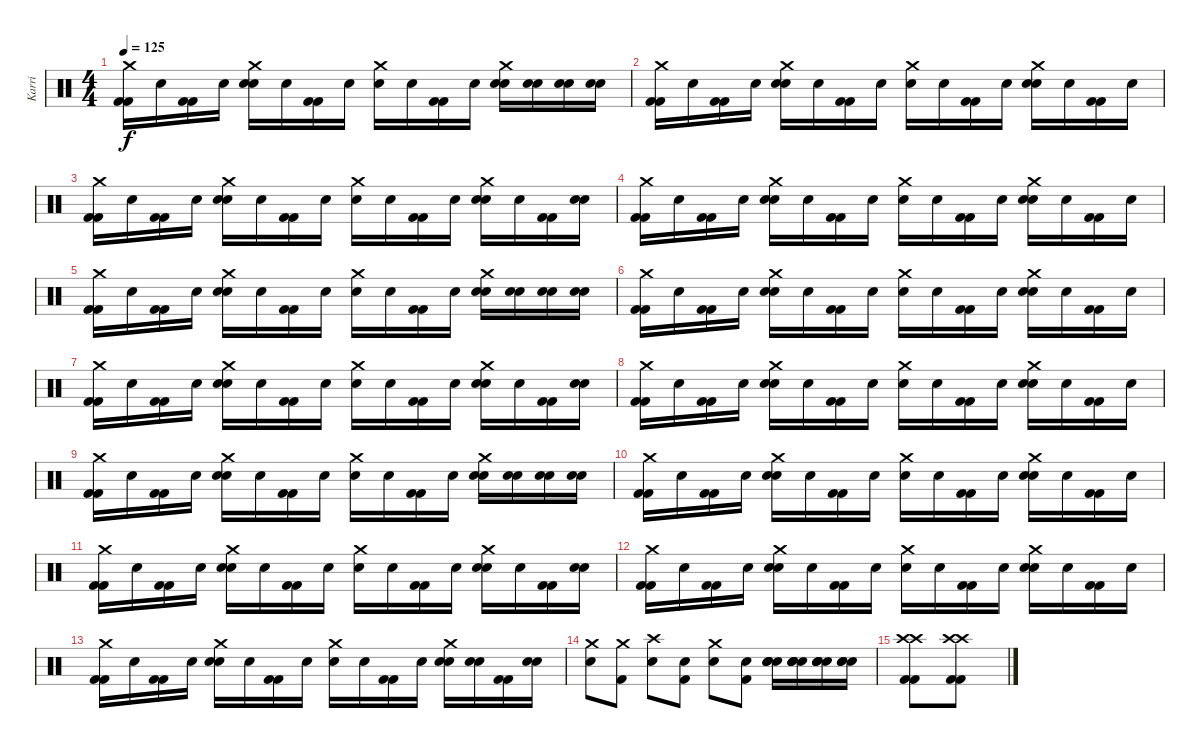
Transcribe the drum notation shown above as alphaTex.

\track ("Karri" "Karri") {instrument percussion}
\staff {score}
\articulation defaults
\ts (4 4)
\tempo 125
\clef neutral
\ks c
("Crash medium (hit)" "Kick (hit) 2" "Kick (hit) 2").16{dy f} "Snare (hit)"{x}.16 ("Kick (hit) 2" "Kick (hit) 2").16 "Snare (hit)"{x}.16 ("Crash medium (hit)" "Snare (hit) 2" "Snare (hit) 2").16 "Snare (hit)"{x}.16 ("Kick (hit) 2" "Kick (hit) 2").16 "Snare (hit)"{x}.16 ("Crash medium (hit)" "Snare (hit)"{x}).16 "Snare (hit)"{x}.16 ("Kick (hit) 2" "Kick (hit) 2").16 "Snare (hit)"{x}.16 ("Crash medium (hit)" "Snare (hit) 2" "Snare (hit) 2").16 ("Snare (hit) 2"{x} "Snare (hit) 2"{x}).16 ("Snare (hit) 2" "Snare (hit) 2").16 ("Snare (hit) 2" "Snare (hit) 2").16 |
("Crash medium (hit)" "Kick (hit) 2" "Kick (hit) 2").16 "Snare (hit)"{x}.16 ("Kick (hit) 2" "Kick (hit) 2").16 "Snare (hit)"{x}.16 ("Crash medium (hit)" "Snare (hit) 2" "Snare (hit) 2").16 "Snare (hit)"{x}.16 ("Kick (hit) 2" "Kick (hit) 2").16 "Snare (hit)"{x}.16 ("Crash medium (hit)" "Snare (hit)"{x}).16 "Snare (hit)"{x}.16 ("Kick (hit) 2" "Kick (hit) 2").16 "Snare (hit)"{x}.16 ("Crash medium (hit)" "Snare (hit) 2" "Snare (hit) 2").16 "Snare (hit)"{x}.16 ("Kick (hit) 2" "Kick (hit) 2").16 "Snare (hit)"{x}.16 |
("Crash medium (hit)" "Kick (hit) 2" "Kick (hit) 2").16 "Snare (hit)"{x}.16 ("Kick (hit) 2" "Kick (hit) 2").16 "Snare (hit)"{x}.16 ("Crash medium (hit)" "Snare (hit) 2" "Snare (hit) 2").16 "Snare (hit)"{x}.16 ("Kick (hit) 2" "Kick (hit) 2").16 "Snare (hit)"{x}.16 ("Crash medium (hit)" "Snare (hit)"{x}).16 "Snare (hit)"{x}.16 ("Kick (hit) 2" "Kick (hit) 2").16 "Snare (hit)"{x}.16 ("Crash medium (hit)" "Snare (hit) 2" "Snare (hit) 2").16 "Snare (hit)"{x}.16 ("Kick (hit) 2" "Kick (hit) 2").16 ("Snare (hit) 2"{x} "Snare (hit) 2"{x}).16 |
("Crash medium (hit)" "Kick (hit) 2" "Kick (hit) 2").16 "Snare (hit)"{x}.16 ("Kick (hit) 2" "Kick (hit) 2").16 "Snare (hit)"{x}.16 ("Crash medium (hit)" "Snare (hit) 2" "Snare (hit) 2").16 "Snare (hit)"{x}.16 ("Kick (hit) 2" "Kick (hit) 2").16 "Snare (hit)"{x}.16 ("Crash medium (hit)" "Snare (hit)"{x}).16 "Snare (hit)"{x}.16 ("Kick (hit) 2" "Kick (hit) 2").16 "Snare (hit)"{x}.16 ("Crash medium (hit)" "Snare (hit) 2" "Snare (hit) 2").16 "Snare (hit)"{x}.16 ("Kick (hit) 2" "Kick (hit) 2").16 "Snare (hit)"{x}.16 |
("Crash medium (hit)" "Kick (hit) 2" "Kick (hit) 2").16 "Snare (hit)"{x}.16 ("Kick (hit) 2" "Kick (hit) 2").16 "Snare (hit)"{x}.16 ("Crash medium (hit)" "Snare (hit) 2" "Snare (hit) 2").16 "Snare (hit)"{x}.16 ("Kick (hit) 2" "Kick (hit) 2").16 "Snare (hit)"{x}.16 ("Crash medium (hit)" "Snare (hit)"{x}).16 "Snare (hit)"{x}.16 ("Kick (hit) 2" "Kick (hit) 2").16 "Snare (hit)"{x}.16 ("Crash medium (hit)" "Snare (hit) 2" "Snare (hit) 2").16 ("Snare (hit) 2"{x} "Snare (hit) 2"{x}).16 ("Snare (hit) 2" "Snare (hit) 2").16 ("Snare (hit) 2" "Snare (hit) 2").16 |
("Crash medium (hit)" "Kick (hit) 2" "Kick (hit) 2").16 "Snare (hit)"{x}.16 ("Kick (hit) 2" "Kick (hit) 2").16 "Snare (hit)"{x}.16 ("Crash medium (hit)" "Snare (hit) 2" "Snare (hit) 2").16 "Snare (hit)"{x}.16 ("Kick (hit) 2" "Kick (hit) 2").16 "Snare (hit)"{x}.16 ("Crash medium (hit)" "Snare (hit)"{x}).16 "Snare (hit)"{x}.16 ("Kick (hit) 2" "Kick (hit) 2").16 "Snare (hit)"{x}.16 ("Crash medium (hit)" "Snare (hit) 2" "Snare (hit) 2").16 "Snare (hit)"{x}.16 ("Kick (hit) 2" "Kick (hit) 2").16 "Snare (hit)"{x}.16 |
("Crash medium (hit)" "Kick (hit) 2" "Kick (hit) 2").16 "Snare (hit)"{x}.16 ("Kick (hit) 2" "Kick (hit) 2").16 "Snare (hit)"{x}.16 ("Crash medium (hit)" "Snare (hit) 2" "Snare (hit) 2").16 "Snare (hit)"{x}.16 ("Kick (hit) 2" "Kick (hit) 2").16 "Snare (hit)"{x}.16 ("Crash medium (hit)" "Snare (hit)"{x}).16 "Snare (hit)"{x}.16 ("Kick (hit) 2" "Kick (hit) 2").16 "Snare (hit)"{x}.16 ("Crash medium (hit)" "Snare (hit) 2" "Snare (hit) 2").16 "Snare (hit)"{x}.16 ("Kick (hit) 2" "Kick (hit) 2").16 ("Snare (hit) 2"{x} "Snare (hit) 2"{x}).16 |
("Crash medium (hit)" "Kick (hit) 2" "Kick (hit) 2").16 "Snare (hit)"{x}.16 ("Kick (hit) 2" "Kick (hit) 2").16 "Snare (hit)"{x}.16 ("Crash medium (hit)" "Snare (hit) 2" "Snare (hit) 2").16 "Snare (hit)"{x}.16 ("Kick (hit) 2" "Kick (hit) 2").16 "Snare (hit)"{x}.16 ("Crash medium (hit)" "Snare (hit)"{x}).16 "Snare (hit)"{x}.16 ("Kick (hit) 2" "Kick (hit) 2").16 "Snare (hit)"{x}.16 ("Crash medium (hit)" "Snare (hit) 2" "Snare (hit) 2").16 "Snare (hit)"{x}.16 ("Kick (hit) 2" "Kick (hit) 2").16 "Snare (hit)"{x}.16 |
("Crash medium (hit)" "Kick (hit) 2" "Kick (hit) 2").16 "Snare (hit)"{x}.16 ("Kick (hit) 2" "Kick (hit) 2").16 "Snare (hit)"{x}.16 ("Crash medium (hit)" "Snare (hit) 2" "Snare (hit) 2").16 "Snare (hit)"{x}.16 ("Kick (hit) 2" "Kick (hit) 2").16 "Snare (hit)"{x}.16 ("Crash medium (hit)" "Snare (hit)"{x}).16 "Snare (hit)"{x}.16 ("Kick (hit) 2" "Kick (hit) 2").16 "Snare (hit)"{x}.16 ("Crash medium (hit)" "Snare (hit) 2" "Snare (hit) 2").16 ("Snare (hit) 2"{x} "Snare (hit) 2"{x}).16 ("Snare (hit) 2" "Snare (hit) 2").16 ("Snare (hit) 2" "Snare (hit) 2").16 |
("Crash medium (hit)" "Kick (hit) 2" "Kick (hit) 2").16 "Snare (hit)"{x}.16 ("Kick (hit) 2" "Kick (hit) 2").16 "Snare (hit)"{x}.16 ("Crash medium (hit)" "Snare (hit) 2" "Snare (hit) 2").16 "Snare (hit)"{x}.16 ("Kick (hit) 2" "Kick (hit) 2").16 "Snare (hit)"{x}.16 ("Crash medium (hit)" "Snare (hit)"{x}).16 "Snare (hit)"{x}.16 ("Kick (hit) 2" "Kick (hit) 2").16 "Snare (hit)"{x}.16 ("Crash medium (hit)" "Snare (hit) 2" "Snare (hit) 2").16 "Snare (hit)"{x}.16 ("Kick (hit) 2" "Kick (hit) 2").16 "Snare (hit)"{x}.16 |
("Crash medium (hit)" "Kick (hit) 2" "Kick (hit) 2").16 "Snare (hit)"{x}.16 ("Kick (hit) 2" "Kick (hit) 2").16 "Snare (hit)"{x}.16 ("Crash medium (hit)" "Snare (hit) 2" "Snare (hit) 2").16 "Snare (hit)"{x}.16 ("Kick (hit) 2" "Kick (hit) 2").16 "Snare (hit)"{x}.16 ("Crash medium (hit)" "Snare (hit)"{x}).16 "Snare (hit)"{x}.16 ("Kick (hit) 2" "Kick (hit) 2").16 "Snare (hit)"{x}.16 ("Crash medium (hit)" "Snare (hit) 2" "Snare (hit) 2").16 "Snare (hit)"{x}.16 ("Kick (hit) 2" "Kick (hit) 2").16 ("Snare (hit) 2"{x} "Snare (hit) 2"{x}).16 |
("Crash medium (hit)" "Kick (hit) 2" "Kick (hit) 2").16 "Snare (hit)"{x}.16 ("Kick (hit) 2" "Kick (hit) 2").16 "Snare (hit)"{x}.16 ("Crash medium (hit)" "Snare (hit) 2" "Snare (hit) 2").16 "Snare (hit)"{x}.16 ("Kick (hit) 2" "Kick (hit) 2").16 "Snare (hit)"{x}.16 ("Crash medium (hit)" "Snare (hit)"{x}).16 "Snare (hit)"{x}.16 ("Kick (hit) 2" "Kick (hit) 2").16 "Snare (hit)"{x}.16 ("Crash medium (hit)" "Snare (hit) 2" "Snare (hit) 2").16 "Snare (hit)"{x}.16 ("Kick (hit) 2" "Kick (hit) 2").16 "Snare (hit)"{x}.16 |
("Crash medium (hit)" "Kick (hit) 2" "Kick (hit) 2").16 "Snare (hit)"{x}.16 ("Kick (hit) 2" "Kick (hit) 2").16 "Snare (hit)"{x}.16 ("Crash medium (hit)" "Snare (hit) 2" "Snare (hit) 2").16 "Snare (hit)"{x}.16 ("Kick (hit) 2" "Kick (hit) 2").16 "Snare (hit)"{x}.16 ("Crash medium (hit)" "Snare (hit)"{x}).16 "Snare (hit)"{x}.16 ("Kick (hit) 2" "Kick (hit) 2").16 "Snare (hit)"{x}.16 ("Crash medium (hit)" "Snare (hit) 2" "Snare (hit) 2").16 ("Snare (hit) 2"{x} "Snare (hit) 2"{x}).16 ("Kick (hit) 2" "Kick (hit) 2").16 ("Snare (hit) 2"{x} "Snare (hit) 2"{x}).16 |
("Crash medium (hit)" "Snare (hit) 2").8 ("Crash medium (hit)"{x} "Kick (hit) 2").8 ("Crash high (hit)" "Snare (hit) 2").8 ("Snare (hit)"{x} "Kick (hit) 2").8 ("Crash medium (hit)" "Snare (hit) 2").8 ("Snare (hit)"{x} "Kick (hit) 2").8 ("Snare (hit)"{x} "Snare (hit) 2" "Snare (hit) 2" "Snare (hit) 2").16 ("Snare (hit)"{x} "Snare (hit) 2" "Snare (hit) 2" "Snare (hit) 2").16 ("Snare (hit)"{x} "Snare (hit) 2" "Snare (hit) 2" "Snare (hit) 2").16 ("Snare (hit) 2" "Snare (hit) 2" "Snare (hit) 2").16 |
("Crash high (hit)" "Crash high (hit)" "Kick (hit) 2" "Kick (hit) 2").8 ("Crash high (hit)" "Crash high (hit)" "Kick (hit) 2" "Kick (hit) 2").8
